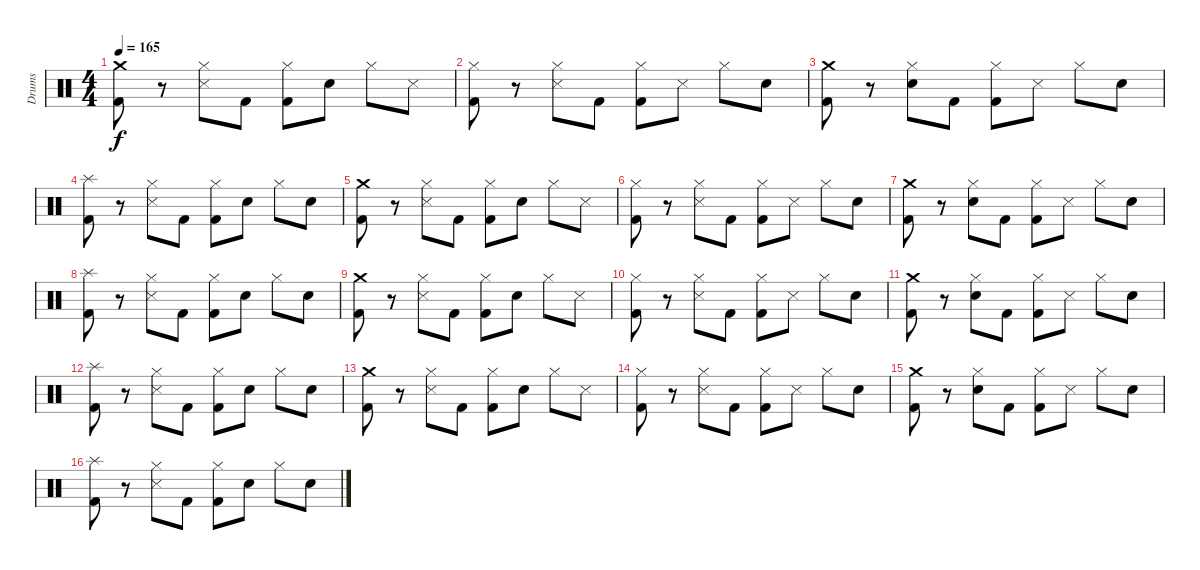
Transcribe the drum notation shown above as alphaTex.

\track ("Drums" "Drums") {instrument percussion}
\staff {score}
\articulation defaults
\ts (4 4)
\tempo 165
\clef neutral
\ks c
("Kick (hit) 2" "Crash medium (hit)").8{dy f} r.8 ("Metronome (hit)" "Hi-Hat (closed)").8 "Kick (hit) 2".8 ("Kick (hit) 2" "Hi-Hat (closed)").8 "Snare (hit) 2".8 "Hi-Hat (closed)".8 "Metronome (hit)".8 |
("Kick (hit) 2" "Hi-Hat (closed)").8 r.8 ("Metronome (hit)" "Hi-Hat (closed)").8 "Kick (hit) 2".8 ("Kick (hit) 2" "Hi-Hat (closed)").8 "Metronome (hit)".8 "Hi-Hat (closed)".8 "Snare (hit) 2".8 |
("Kick (hit) 2" "Crash medium (hit)").8 r.8 ("Snare (hit) 2" "Hi-Hat (closed)").8 "Kick (hit) 2".8 ("Kick (hit) 2" "Hi-Hat (closed)").8 "Metronome (hit)".8 "Hi-Hat (closed)".8 "Snare (hit) 2".8 |
("Kick (hit) 2" "Splash (hit)").8 r.8 ("Metronome (hit)" "Hi-Hat (closed)").8 "Kick (hit) 2".8 ("Kick (hit) 2" "Hi-Hat (closed)").8 "Snare (hit) 2".8 "Hi-Hat (closed)".8 "Snare (hit) 2".8 |
("Kick (hit) 2" "Crash medium (hit)").8 r.8 ("Metronome (hit)" "Hi-Hat (closed)").8 "Kick (hit) 2".8 ("Kick (hit) 2" "Hi-Hat (closed)").8 "Snare (hit) 2".8 "Hi-Hat (closed)".8 "Metronome (hit)".8 |
("Kick (hit) 2" "Hi-Hat (closed)").8 r.8 ("Metronome (hit)" "Hi-Hat (closed)").8 "Kick (hit) 2".8 ("Kick (hit) 2" "Hi-Hat (closed)").8 "Metronome (hit)".8 "Hi-Hat (closed)".8 "Snare (hit) 2".8 |
("Kick (hit) 2" "Crash medium (hit)").8 r.8 ("Snare (hit) 2" "Hi-Hat (closed)").8 "Kick (hit) 2".8 ("Kick (hit) 2" "Hi-Hat (closed)").8 "Metronome (hit)".8 "Hi-Hat (closed)".8 "Snare (hit) 2".8 |
("Kick (hit) 2" "Splash (hit)").8 r.8 ("Metronome (hit)" "Hi-Hat (closed)").8 "Kick (hit) 2".8 ("Kick (hit) 2" "Hi-Hat (closed)").8 "Snare (hit) 2".8 "Hi-Hat (closed)".8 "Snare (hit) 2".8 |
("Kick (hit) 2" "Crash medium (hit)").8 r.8 ("Metronome (hit)" "Hi-Hat (closed)").8 "Kick (hit) 2".8 ("Kick (hit) 2" "Hi-Hat (closed)").8 "Snare (hit) 2".8 "Hi-Hat (closed)".8 "Metronome (hit)".8 |
("Kick (hit) 2" "Hi-Hat (closed)").8 r.8 ("Metronome (hit)" "Hi-Hat (closed)").8 "Kick (hit) 2".8 ("Kick (hit) 2" "Hi-Hat (closed)").8 "Metronome (hit)".8 "Hi-Hat (closed)".8 "Snare (hit) 2".8 |
("Kick (hit) 2" "Crash medium (hit)").8 r.8 ("Snare (hit) 2" "Hi-Hat (closed)").8 "Kick (hit) 2".8 ("Kick (hit) 2" "Hi-Hat (closed)").8 "Metronome (hit)".8 "Hi-Hat (closed)".8 "Snare (hit) 2".8 |
("Kick (hit) 2" "Splash (hit)").8 r.8 ("Metronome (hit)" "Hi-Hat (closed)").8 "Kick (hit) 2".8 ("Kick (hit) 2" "Hi-Hat (closed)").8 "Snare (hit) 2".8 "Hi-Hat (closed)".8 "Snare (hit) 2".8 |
("Kick (hit) 2" "Crash medium (hit)").8 r.8 ("Metronome (hit)" "Hi-Hat (closed)").8 "Kick (hit) 2".8 ("Kick (hit) 2" "Hi-Hat (closed)").8 "Snare (hit) 2".8 "Hi-Hat (closed)".8 "Metronome (hit)".8 |
("Kick (hit) 2" "Hi-Hat (closed)").8 r.8 ("Metronome (hit)" "Hi-Hat (closed)").8 "Kick (hit) 2".8 ("Kick (hit) 2" "Hi-Hat (closed)").8 "Metronome (hit)".8 "Hi-Hat (closed)".8 "Snare (hit) 2".8 |
("Kick (hit) 2" "Crash medium (hit)").8 r.8 ("Snare (hit) 2" "Hi-Hat (closed)").8 "Kick (hit) 2".8 ("Kick (hit) 2" "Hi-Hat (closed)").8 "Metronome (hit)".8 "Hi-Hat (closed)".8 "Snare (hit) 2".8 |
("Kick (hit) 2" "Splash (hit)").8 r.8 ("Metronome (hit)" "Hi-Hat (closed)").8 "Kick (hit) 2".8 ("Kick (hit) 2" "Hi-Hat (closed)").8 "Snare (hit) 2".8 "Hi-Hat (closed)".8 "Snare (hit) 2".8
